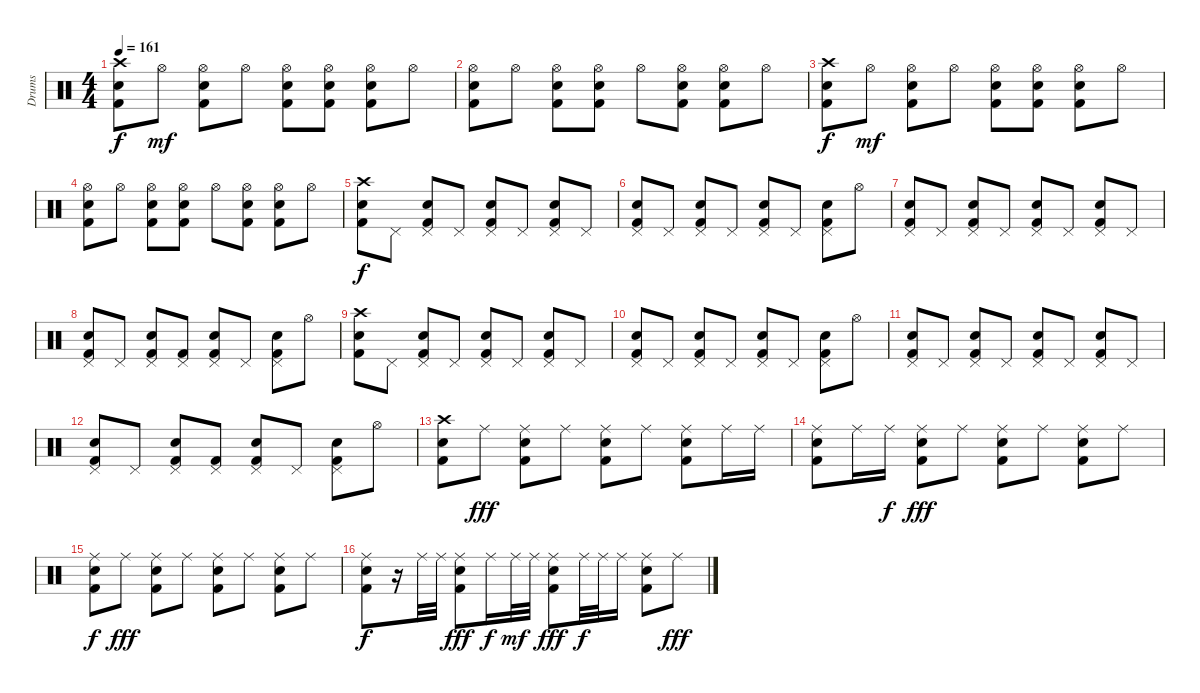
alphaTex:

\track ("Drums" "Drums") {instrument percussion}
\staff {score}
\articulation defaults
\ts (4 4)
\tempo 161
\clef neutral
\ks c
("Crash high (hit)" "Electric Snare (hit)" "Kick (hit) 2").8{dy f} "Hi-Hat (open)".8{dy mf} ("Hi-Hat (open)" "Electric Snare (hit)" "Kick (hit) 2").8 "Hi-Hat (open)".8 ("Hi-Hat (open)" "Electric Snare (hit)" "Kick (hit) 2").8 ("Hi-Hat (open)" "Electric Snare (hit)" "Kick (hit) 2").8 ("Hi-Hat (open)" "Electric Snare (hit)" "Kick (hit) 2").8 "Hi-Hat (open)".8 |
("Hi-Hat (open)" "Electric Snare (hit)" "Kick (hit) 2").8 "Hi-Hat (open)".8 ("Hi-Hat (open)" "Electric Snare (hit)" "Kick (hit) 2").8 ("Hi-Hat (open)" "Electric Snare (hit)" "Kick (hit) 2").8 "Hi-Hat (open)".8 ("Hi-Hat (open)" "Electric Snare (hit)" "Kick (hit) 2").8 ("Hi-Hat (open)" "Electric Snare (hit)" "Kick (hit) 2").8 "Hi-Hat (open)".8 |
("Crash high (hit)" "Electric Snare (hit)" "Kick (hit) 2").8{dy f} "Hi-Hat (open)".8{dy mf} ("Hi-Hat (open)" "Electric Snare (hit)" "Kick (hit) 2").8 "Hi-Hat (open)".8 ("Hi-Hat (open)" "Electric Snare (hit)" "Kick (hit) 2").8 ("Hi-Hat (open)" "Electric Snare (hit)" "Kick (hit) 2").8 ("Hi-Hat (open)" "Electric Snare (hit)" "Kick (hit) 2").8 "Hi-Hat (open)".8 |
("Hi-Hat (open)" "Electric Snare (hit)" "Kick (hit) 2").8 "Hi-Hat (open)".8 ("Hi-Hat (open)" "Electric Snare (hit)" "Kick (hit) 2").8 ("Hi-Hat (open)" "Electric Snare (hit)" "Kick (hit) 2").8 "Hi-Hat (open)".8 ("Hi-Hat (open)" "Electric Snare (hit)" "Kick (hit) 2").8 ("Hi-Hat (open)" "Electric Snare (hit)" "Kick (hit) 2").8 "Hi-Hat (open)".8 |
("Crash high (hit)" "Electric Snare (hit)" "Kick (hit) 2").8{dy f} "Pedal Hi-Hat (hit)".8 ("Pedal Hi-Hat (hit)" "Electric Snare (hit)" "Kick (hit) 2").8 "Pedal Hi-Hat (hit)".8 ("Pedal Hi-Hat (hit)" "Electric Snare (hit)" "Kick (hit) 2").8 "Pedal Hi-Hat (hit)".8 ("Pedal Hi-Hat (hit)" "Electric Snare (hit)" "Kick (hit) 2").8 "Pedal Hi-Hat (hit)".8 |
("Pedal Hi-Hat (hit)" "Electric Snare (hit)" "Kick (hit) 2").8 "Pedal Hi-Hat (hit)".8 ("Pedal Hi-Hat (hit)" "Electric Snare (hit)" "Kick (hit) 2").8 "Pedal Hi-Hat (hit)".8 ("Pedal Hi-Hat (hit)" "Electric Snare (hit)" "Kick (hit) 2").8 "Pedal Hi-Hat (hit)".8 ("Pedal Hi-Hat (hit)" "Electric Snare (hit)" "Kick (hit) 2").8 "Hi-Hat (open)".8 |
("Pedal Hi-Hat (hit)" "Electric Snare (hit)" "Kick (hit) 2").8 "Pedal Hi-Hat (hit)".8 ("Pedal Hi-Hat (hit)" "Electric Snare (hit)" "Kick (hit) 2").8 "Pedal Hi-Hat (hit)".8 ("Pedal Hi-Hat (hit)" "Electric Snare (hit)" "Kick (hit) 2").8 "Pedal Hi-Hat (hit)".8 ("Pedal Hi-Hat (hit)" "Electric Snare (hit)" "Kick (hit) 2").8 "Pedal Hi-Hat (hit)".8 |
("Pedal Hi-Hat (hit)" "Electric Snare (hit)" "Kick (hit) 2").8 "Pedal Hi-Hat (hit)".8 ("Pedal Hi-Hat (hit)" "Electric Snare (hit)" "Kick (hit) 2").8 ("Pedal Hi-Hat (hit)" "Kick (hit) 2").8 ("Pedal Hi-Hat (hit)" "Electric Snare (hit)" "Kick (hit) 2").8 "Pedal Hi-Hat (hit)".8 ("Pedal Hi-Hat (hit)" "Electric Snare (hit)" "Kick (hit) 2").8 "Hi-Hat (open)".8 |
("Crash high (hit)" "Electric Snare (hit)" "Kick (hit) 2").8 "Pedal Hi-Hat (hit)".8 ("Pedal Hi-Hat (hit)" "Electric Snare (hit)" "Kick (hit) 2").8 "Pedal Hi-Hat (hit)".8 ("Pedal Hi-Hat (hit)" "Electric Snare (hit)" "Kick (hit) 2").8 "Pedal Hi-Hat (hit)".8 ("Pedal Hi-Hat (hit)" "Electric Snare (hit)" "Kick (hit) 2").8 "Pedal Hi-Hat (hit)".8 |
("Pedal Hi-Hat (hit)" "Electric Snare (hit)" "Kick (hit) 2").8 "Pedal Hi-Hat (hit)".8 ("Pedal Hi-Hat (hit)" "Electric Snare (hit)" "Kick (hit) 2").8 "Pedal Hi-Hat (hit)".8 ("Pedal Hi-Hat (hit)" "Electric Snare (hit)" "Kick (hit) 2").8 "Pedal Hi-Hat (hit)".8 ("Pedal Hi-Hat (hit)" "Electric Snare (hit)" "Kick (hit) 2").8 "Hi-Hat (open)".8 |
("Pedal Hi-Hat (hit)" "Electric Snare (hit)" "Kick (hit) 2").8 "Pedal Hi-Hat (hit)".8 ("Pedal Hi-Hat (hit)" "Electric Snare (hit)" "Kick (hit) 2").8 "Pedal Hi-Hat (hit)".8 ("Pedal Hi-Hat (hit)" "Electric Snare (hit)" "Kick (hit) 2").8 "Pedal Hi-Hat (hit)".8 ("Pedal Hi-Hat (hit)" "Electric Snare (hit)" "Kick (hit) 2").8 "Pedal Hi-Hat (hit)".8 |
("Pedal Hi-Hat (hit)" "Electric Snare (hit)" "Kick (hit) 2").8 "Pedal Hi-Hat (hit)".8 ("Pedal Hi-Hat (hit)" "Electric Snare (hit)" "Kick (hit) 2").8 ("Pedal Hi-Hat (hit)" "Kick (hit) 2").8 ("Pedal Hi-Hat (hit)" "Electric Snare (hit)" "Kick (hit) 2").8 "Pedal Hi-Hat (hit)".8 ("Pedal Hi-Hat (hit)" "Electric Snare (hit)" "Kick (hit) 2").8 "Hi-Hat (open)".8 |
("Crash high (hit)" "Electric Snare (hit)" "Kick (hit) 2").8 "Ride (middle)".8{dy fff} ("Ride (middle)" "Electric Snare (hit)" "Kick (hit) 2").8 "Ride (middle)".8 ("Ride (middle)" "Electric Snare (hit)" "Kick (hit) 2").8 "Ride (middle)".8 ("Ride (middle)" "Electric Snare (hit)" "Kick (hit) 2").8 "Ride (middle)".16 "Ride (middle)".16 |
("Ride (middle)" "Electric Snare (hit)" "Kick (hit) 2").8 "Ride (middle)".16 "Ride (middle)".16{dy f} ("Ride (middle)" "Electric Snare (hit)" "Kick (hit) 2").8{dy fff} "Ride (middle)".8 ("Ride (middle)" "Electric Snare (hit)" "Kick (hit) 2").8 "Ride (middle)".8 ("Ride (middle)" "Electric Snare (hit)" "Kick (hit) 2").8 "Ride (middle)".8 |
("Ride (middle)" "Electric Snare (hit)" "Kick (hit) 2").8{dy f} "Ride (middle)".8{dy fff} ("Ride (middle)" "Electric Snare (hit)" "Kick (hit) 2").8 "Ride (middle)".8 ("Ride (middle)" "Electric Snare (hit)" "Kick (hit) 2").8 "Ride (middle)".8 ("Ride (middle)" "Electric Snare (hit)" "Kick (hit) 2").8 "Ride (middle)".8 |
("Ride (middle)" "Electric Snare (hit)" "Kick (hit) 2").8{dy f} r.16 "Ride (middle)".32 "Ride (middle)".32 ("Ride (middle)" "Electric Snare (hit)" "Kick (hit) 2").8{dy fff} "Ride (middle)".16{dy f} "Ride (middle)".32{dy mf} "Ride (middle)".32 ("Ride (middle)" "Electric Snare (hit)" "Kick (hit) 2").8{dy fff} "Ride (middle)".32{dy f} "Ride (middle)".32 "Ride (middle)".16 ("Ride (middle)" "Electric Snare (hit)" "Kick (hit) 2").8 "Ride (middle)".8{dy fff}
